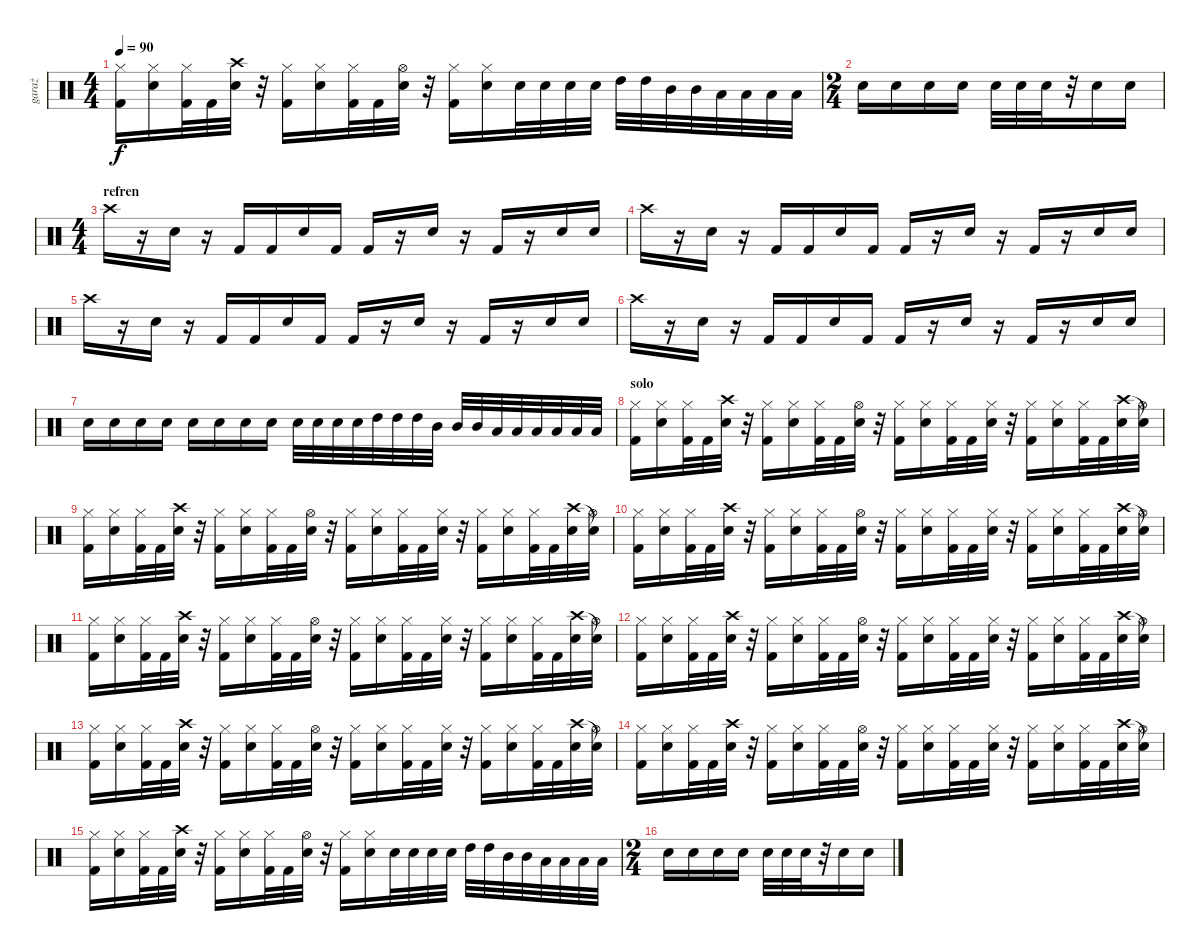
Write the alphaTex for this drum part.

\track ("garaż" "garaż") {instrument percussion}
\staff {score}
\articulation defaults
\ts (4 4)
\tempo 90
\clef neutral
\ks c
("Hi-Hat (closed)" "Kick (hit) 2").16{dy f} ("Hi-Hat (closed)" "Snare (hit) 2").16 ("Hi-Hat (closed)" "Kick (hit) 2").32 "Kick (hit) 2".32 ("Crash high (hit)" "Snare (hit) 2").32 r.32 ("Hi-Hat (closed)" "Kick (hit) 2").16 ("Hi-Hat (closed)" "Snare (hit) 2").16 ("Hi-Hat (closed)" "Kick (hit) 2").32 "Kick (hit) 2".32 ("Hi-Hat (open)" "Snare (hit) 2").32 r.32 ("Hi-Hat (closed)" "Kick (hit) 2").16 ("Hi-Hat (closed)" "Snare (hit) 2").16 "Snare (hit) 2".32 "Snare (hit) 2".32 "Snare (hit) 2".32 "Snare (hit) 2".32 "High Tom (hit)".32 "High Tom (hit)".32 "Mid Tom (hit)".32 "Mid Tom (hit)".32 "Low Tom (hit)".32 "Low Tom (hit)".32 "Low Floor Tom (hit)".32 "Low Floor Tom (hit)".32 |
\ts (2 4)
"Snare (hit) 2".16 "Snare (hit) 2".16 "Snare (hit) 2".16 "Snare (hit) 2".16 "Snare (hit) 2".32 "Snare (hit) 2".32 "Snare (hit) 2".32 r.32 "Snare (hit) 2".16 "Snare (hit) 2".16 |
\ts (4 4)
\section ("" "refren")
"Crash high (hit)".16 r.16 "Snare (hit) 2".16 r.16 "Kick (hit) 2".16 "Kick (hit) 2".16 "Snare (hit) 2".16 "Kick (hit) 2".16 "Kick (hit) 2".16 r.16 "Snare (hit) 2".16 r.16 "Kick (hit) 2".16 r.16 "Snare (hit) 2".16 "Snare (hit) 2".16 |
"Crash high (hit)".16 r.16 "Snare (hit) 2".16 r.16 "Kick (hit) 2".16 "Kick (hit) 2".16 "Snare (hit) 2".16 "Kick (hit) 2".16 "Kick (hit) 2".16 r.16 "Snare (hit) 2".16 r.16 "Kick (hit) 2".16 r.16 "Snare (hit) 2".16 "Snare (hit) 2".16 |
"Crash high (hit)".16 r.16 "Snare (hit) 2".16 r.16 "Kick (hit) 2".16 "Kick (hit) 2".16 "Snare (hit) 2".16 "Kick (hit) 2".16 "Kick (hit) 2".16 r.16 "Snare (hit) 2".16 r.16 "Kick (hit) 2".16 r.16 "Snare (hit) 2".16 "Snare (hit) 2".16 |
"Crash high (hit)".16 r.16 "Snare (hit) 2".16 r.16 "Kick (hit) 2".16 "Kick (hit) 2".16 "Snare (hit) 2".16 "Kick (hit) 2".16 "Kick (hit) 2".16 r.16 "Snare (hit) 2".16 r.16 "Kick (hit) 2".16 r.16 "Snare (hit) 2".16 "Snare (hit) 2".16 |
"Snare (hit) 2".16 "Snare (hit) 2".16 "Snare (hit) 2".16 "Snare (hit) 2".16 "Snare (hit) 2".16 "Snare (hit) 2".16 "Snare (hit) 2".16 "Snare (hit) 2".16 "Snare (hit) 2".32 "Snare (hit) 2".32 "Snare (hit) 2".32 "Snare (hit) 2".32 "High Tom (hit)".32 "High Tom (hit)".32 "High Tom (hit)".32 "Mid Tom (hit)".32 "Mid Tom (hit)".32 "Mid Tom (hit)".32 "Low Tom (hit)".32 "Low Tom (hit)".32 "Low Tom (hit)".32 "Low Floor Tom (hit)".32 "Low Floor Tom (hit)".32 "Low Floor Tom (hit)".32 |
\section ("" "solo")
("Hi-Hat (closed)" "Kick (hit) 2").16 ("Hi-Hat (closed)" "Snare (hit) 2").16 ("Hi-Hat (closed)" "Kick (hit) 2").32 "Kick (hit) 2".32 ("Crash high (hit)" "Snare (hit) 2").32 r.32 ("Hi-Hat (closed)" "Kick (hit) 2").16 ("Hi-Hat (closed)" "Snare (hit) 2").16 ("Hi-Hat (closed)" "Kick (hit) 2").32 "Kick (hit) 2".32 ("Hi-Hat (open)" "Snare (hit) 2").32 r.32 ("Hi-Hat (closed)" "Kick (hit) 2").16 ("Hi-Hat (closed)" "Snare (hit) 2").16 ("Hi-Hat (closed)" "Kick (hit) 2").32 "Kick (hit) 2".32 ("Hi-Hat (closed)" "Snare (hit) 2").32 r.32 ("Hi-Hat (closed)" "Kick (hit) 2").16 ("Hi-Hat (closed)" "Snare (hit) 2").16 ("Hi-Hat (closed)" "Kick (hit) 2").32 "Kick (hit) 2".32 ("Crash high (hit)" "Snare (hit) 2").32 ("Snare (hit)"{t} "Hi-Hat (open)").32 |
("Hi-Hat (closed)" "Kick (hit) 2").16 ("Hi-Hat (closed)" "Snare (hit) 2").16 ("Hi-Hat (closed)" "Kick (hit) 2").32 "Kick (hit) 2".32 ("Crash high (hit)" "Snare (hit) 2").32 r.32 ("Hi-Hat (closed)" "Kick (hit) 2").16 ("Hi-Hat (closed)" "Snare (hit) 2").16 ("Hi-Hat (closed)" "Kick (hit) 2").32 "Kick (hit) 2".32 ("Hi-Hat (open)" "Snare (hit) 2").32 r.32 ("Hi-Hat (closed)" "Kick (hit) 2").16 ("Hi-Hat (closed)" "Snare (hit) 2").16 ("Hi-Hat (closed)" "Kick (hit) 2").32 "Kick (hit) 2".32 ("Hi-Hat (closed)" "Snare (hit) 2").32 r.32 ("Hi-Hat (closed)" "Kick (hit) 2").16 ("Hi-Hat (closed)" "Snare (hit) 2").16 ("Hi-Hat (closed)" "Kick (hit) 2").32 "Kick (hit) 2".32 ("Crash high (hit)" "Snare (hit) 2").32 ("Snare (hit)"{t} "Hi-Hat (open)").32 |
("Hi-Hat (closed)" "Kick (hit) 2").16 ("Hi-Hat (closed)" "Snare (hit) 2").16 ("Hi-Hat (closed)" "Kick (hit) 2").32 "Kick (hit) 2".32 ("Crash high (hit)" "Snare (hit) 2").32 r.32 ("Hi-Hat (closed)" "Kick (hit) 2").16 ("Hi-Hat (closed)" "Snare (hit) 2").16 ("Hi-Hat (closed)" "Kick (hit) 2").32 "Kick (hit) 2".32 ("Hi-Hat (open)" "Snare (hit) 2").32 r.32 ("Hi-Hat (closed)" "Kick (hit) 2").16 ("Hi-Hat (closed)" "Snare (hit) 2").16 ("Hi-Hat (closed)" "Kick (hit) 2").32 "Kick (hit) 2".32 ("Hi-Hat (closed)" "Snare (hit) 2").32 r.32 ("Hi-Hat (closed)" "Kick (hit) 2").16 ("Hi-Hat (closed)" "Snare (hit) 2").16 ("Hi-Hat (closed)" "Kick (hit) 2").32 "Kick (hit) 2".32 ("Crash high (hit)" "Snare (hit) 2").32 ("Snare (hit)"{t} "Hi-Hat (open)").32 |
("Hi-Hat (closed)" "Kick (hit) 2").16 ("Hi-Hat (closed)" "Snare (hit) 2").16 ("Hi-Hat (closed)" "Kick (hit) 2").32 "Kick (hit) 2".32 ("Crash high (hit)" "Snare (hit) 2").32 r.32 ("Hi-Hat (closed)" "Kick (hit) 2").16 ("Hi-Hat (closed)" "Snare (hit) 2").16 ("Hi-Hat (closed)" "Kick (hit) 2").32 "Kick (hit) 2".32 ("Hi-Hat (open)" "Snare (hit) 2").32 r.32 ("Hi-Hat (closed)" "Kick (hit) 2").16 ("Hi-Hat (closed)" "Snare (hit) 2").16 ("Hi-Hat (closed)" "Kick (hit) 2").32 "Kick (hit) 2".32 ("Hi-Hat (closed)" "Snare (hit) 2").32 r.32 ("Hi-Hat (closed)" "Kick (hit) 2").16 ("Hi-Hat (closed)" "Snare (hit) 2").16 ("Hi-Hat (closed)" "Kick (hit) 2").32 "Kick (hit) 2".32 ("Crash high (hit)" "Snare (hit) 2").32 ("Snare (hit)"{t} "Hi-Hat (open)").32 |
("Hi-Hat (closed)" "Kick (hit) 2").16 ("Hi-Hat (closed)" "Snare (hit) 2").16 ("Hi-Hat (closed)" "Kick (hit) 2").32 "Kick (hit) 2".32 ("Crash high (hit)" "Snare (hit) 2").32 r.32 ("Hi-Hat (closed)" "Kick (hit) 2").16 ("Hi-Hat (closed)" "Snare (hit) 2").16 ("Hi-Hat (closed)" "Kick (hit) 2").32 "Kick (hit) 2".32 ("Hi-Hat (open)" "Snare (hit) 2").32 r.32 ("Hi-Hat (closed)" "Kick (hit) 2").16 ("Hi-Hat (closed)" "Snare (hit) 2").16 ("Hi-Hat (closed)" "Kick (hit) 2").32 "Kick (hit) 2".32 ("Hi-Hat (closed)" "Snare (hit) 2").32 r.32 ("Hi-Hat (closed)" "Kick (hit) 2").16 ("Hi-Hat (closed)" "Snare (hit) 2").16 ("Hi-Hat (closed)" "Kick (hit) 2").32 "Kick (hit) 2".32 ("Crash high (hit)" "Snare (hit) 2").32 ("Snare (hit)"{t} "Hi-Hat (open)").32 |
("Hi-Hat (closed)" "Kick (hit) 2").16 ("Hi-Hat (closed)" "Snare (hit) 2").16 ("Hi-Hat (closed)" "Kick (hit) 2").32 "Kick (hit) 2".32 ("Crash high (hit)" "Snare (hit) 2").32 r.32 ("Hi-Hat (closed)" "Kick (hit) 2").16 ("Hi-Hat (closed)" "Snare (hit) 2").16 ("Hi-Hat (closed)" "Kick (hit) 2").32 "Kick (hit) 2".32 ("Hi-Hat (open)" "Snare (hit) 2").32 r.32 ("Hi-Hat (closed)" "Kick (hit) 2").16 ("Hi-Hat (closed)" "Snare (hit) 2").16 ("Hi-Hat (closed)" "Kick (hit) 2").32 "Kick (hit) 2".32 ("Hi-Hat (closed)" "Snare (hit) 2").32 r.32 ("Hi-Hat (closed)" "Kick (hit) 2").16 ("Hi-Hat (closed)" "Snare (hit) 2").16 ("Hi-Hat (closed)" "Kick (hit) 2").32 "Kick (hit) 2".32 ("Crash high (hit)" "Snare (hit) 2").32 ("Snare (hit)"{t} "Hi-Hat (open)").32 |
("Hi-Hat (closed)" "Kick (hit) 2").16 ("Hi-Hat (closed)" "Snare (hit) 2").16 ("Hi-Hat (closed)" "Kick (hit) 2").32 "Kick (hit) 2".32 ("Crash high (hit)" "Snare (hit) 2").32 r.32 ("Hi-Hat (closed)" "Kick (hit) 2").16 ("Hi-Hat (closed)" "Snare (hit) 2").16 ("Hi-Hat (closed)" "Kick (hit) 2").32 "Kick (hit) 2".32 ("Hi-Hat (open)" "Snare (hit) 2").32 r.32 ("Hi-Hat (closed)" "Kick (hit) 2").16 ("Hi-Hat (closed)" "Snare (hit) 2").16 ("Hi-Hat (closed)" "Kick (hit) 2").32 "Kick (hit) 2".32 ("Hi-Hat (closed)" "Snare (hit) 2").32 r.32 ("Hi-Hat (closed)" "Kick (hit) 2").16 ("Hi-Hat (closed)" "Snare (hit) 2").16 ("Hi-Hat (closed)" "Kick (hit) 2").32 "Kick (hit) 2".32 ("Crash high (hit)" "Snare (hit) 2").32 ("Snare (hit)"{t} "Hi-Hat (open)").32 |
("Hi-Hat (closed)" "Kick (hit) 2").16 ("Hi-Hat (closed)" "Snare (hit) 2").16 ("Hi-Hat (closed)" "Kick (hit) 2").32 "Kick (hit) 2".32 ("Crash high (hit)" "Snare (hit) 2").32 r.32 ("Hi-Hat (closed)" "Kick (hit) 2").16 ("Hi-Hat (closed)" "Snare (hit) 2").16 ("Hi-Hat (closed)" "Kick (hit) 2").32 "Kick (hit) 2".32 ("Hi-Hat (open)" "Snare (hit) 2").32 r.32 ("Hi-Hat (closed)" "Kick (hit) 2").16 ("Hi-Hat (closed)" "Snare (hit) 2").16 "Snare (hit) 2".32 "Snare (hit) 2".32 "Snare (hit) 2".32 "Snare (hit) 2".32 "High Tom (hit)".32 "High Tom (hit)".32 "Mid Tom (hit)".32 "Mid Tom (hit)".32 "Low Tom (hit)".32 "Low Tom (hit)".32 "Low Floor Tom (hit)".32 "Low Floor Tom (hit)".32 |
\ts (2 4)
"Snare (hit) 2".16 "Snare (hit) 2".16 "Snare (hit) 2".16 "Snare (hit) 2".16 "Snare (hit) 2".32 "Snare (hit) 2".32 "Snare (hit) 2".32 r.32 "Snare (hit) 2".16 "Snare (hit) 2".16
